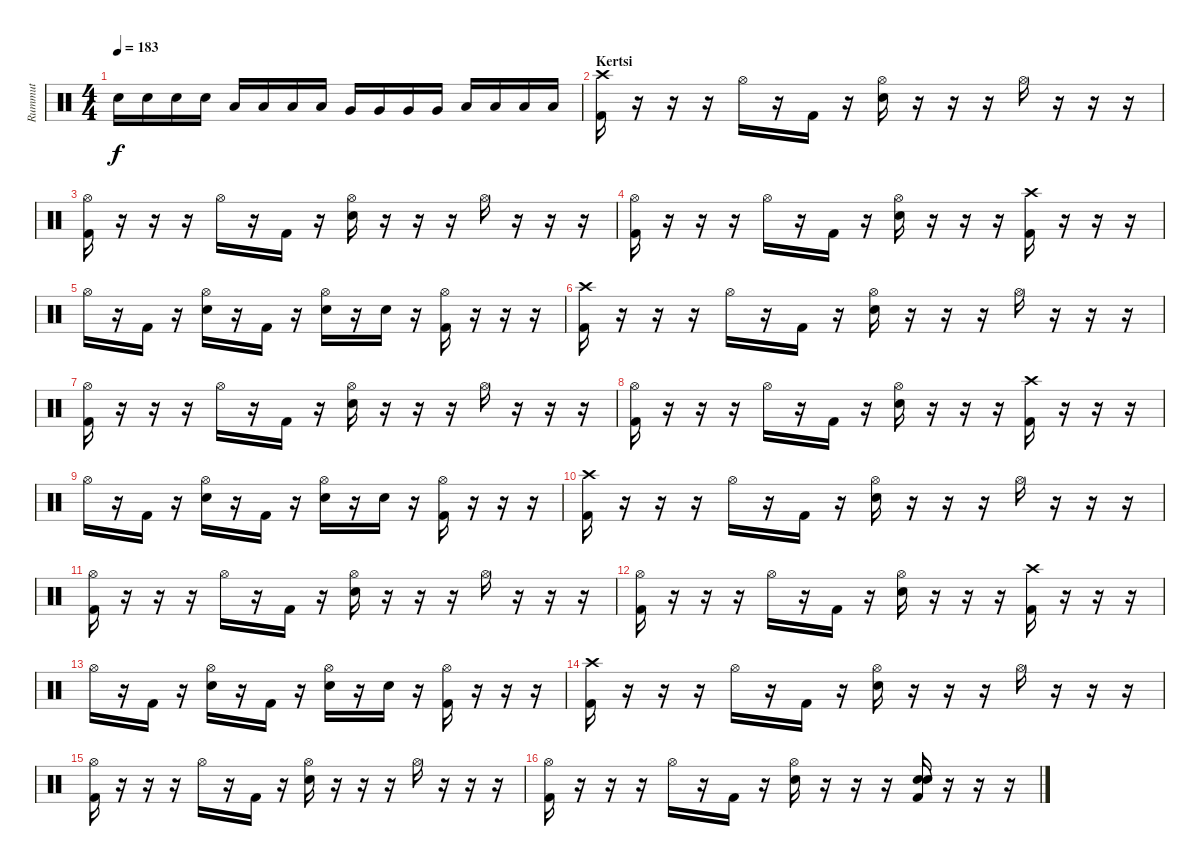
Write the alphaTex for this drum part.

\track ("Rummut" "Rummut") {instrument percussion}
\staff {score}
\articulation defaults
\ts (4 4)
\tempo 183
\clef neutral
\ks c "Electric Snare (hit)".16{dy f} "Electric Snare (hit)".16 "Electric Snare (hit)".16 "Electric Snare (hit)".16 "Low Tom (hit)".16 "Low Tom (hit)".16 "Low Tom (hit)".16 "Low Tom (hit)".16 "Very Low Tom (hit)".16 "Very Low Tom (hit)".16 "Very Low Tom (hit)".16 "Very Low Tom (hit)".16 "Low Floor Tom (hit)".16 "Low Floor Tom (hit)".16 "Low Floor Tom (hit)".16 "Low Floor Tom (hit)".16
|
\section ("" "Kertsi")
("Crash high (hit)" "Kick (hit) 2").16 r.16 r.16 r.16 "Hi-Hat (open)".16 r.16 "Kick (hit) 2".16 r.16 ("Hi-Hat (open)" "Electric Snare (hit)").16 r.16 r.16 r.16 "Hi-Hat (open)".16 r.16 r.16 r.16 |
("Hi-Hat (open)" "Kick (hit) 2").16 r.16 r.16 r.16 "Hi-Hat (open)".16 r.16 "Kick (hit) 2".16 r.16 ("Hi-Hat (open)" "Electric Snare (hit)").16 r.16 r.16 r.16 "Hi-Hat (open)".16 r.16 r.16 r.16 |
("Hi-Hat (open)" "Kick (hit) 2").16 r.16 r.16 r.16 "Hi-Hat (open)".16 r.16 "Kick (hit) 2".16 r.16 ("Hi-Hat (open)" "Electric Snare (hit)").16 r.16 r.16 r.16 ("Crash high (hit)" "Kick (hit) 2").16 r.16 r.16 r.16 |
"Hi-Hat (open)".16 r.16 "Kick (hit) 2".16 r.16 ("Hi-Hat (open)" "Electric Snare (hit)").16 r.16 "Kick (hit) 2".16 r.16 ("Hi-Hat (open)" "Electric Snare (hit)").16 r.16 "Electric Snare (hit)".16 r.16 ("Hi-Hat (open)" "Kick (hit) 2").16 r.16 r.16 r.16 |
("Crash high (hit)" "Kick (hit) 2").16 r.16 r.16 r.16 "Hi-Hat (open)".16 r.16 "Kick (hit) 2".16 r.16 ("Hi-Hat (open)" "Electric Snare (hit)").16 r.16 r.16 r.16 "Hi-Hat (open)".16 r.16 r.16 r.16 |
("Hi-Hat (open)" "Kick (hit) 2").16 r.16 r.16 r.16 "Hi-Hat (open)".16 r.16 "Kick (hit) 2".16 r.16 ("Hi-Hat (open)" "Electric Snare (hit)").16 r.16 r.16 r.16 "Hi-Hat (open)".16 r.16 r.16 r.16 |
("Hi-Hat (open)" "Kick (hit) 2").16 r.16 r.16 r.16 "Hi-Hat (open)".16 r.16 "Kick (hit) 2".16 r.16 ("Hi-Hat (open)" "Electric Snare (hit)").16 r.16 r.16 r.16 ("Crash high (hit)" "Kick (hit) 2").16 r.16 r.16 r.16 |
"Hi-Hat (open)".16 r.16 "Kick (hit) 2".16 r.16 ("Hi-Hat (open)" "Electric Snare (hit)").16 r.16 "Kick (hit) 2".16 r.16 ("Hi-Hat (open)" "Electric Snare (hit)").16 r.16 "Electric Snare (hit)".16 r.16 ("Hi-Hat (open)" "Kick (hit) 2").16 r.16 r.16 r.16 |
("Crash high (hit)" "Kick (hit) 2").16 r.16 r.16 r.16 "Hi-Hat (open)".16 r.16 "Kick (hit) 2".16 r.16 ("Hi-Hat (open)" "Electric Snare (hit)").16 r.16 r.16 r.16 "Hi-Hat (open)".16 r.16 r.16 r.16 |
("Hi-Hat (open)" "Kick (hit) 2").16 r.16 r.16 r.16 "Hi-Hat (open)".16 r.16 "Kick (hit) 2".16 r.16 ("Hi-Hat (open)" "Electric Snare (hit)").16 r.16 r.16 r.16 "Hi-Hat (open)".16 r.16 r.16 r.16 |
("Hi-Hat (open)" "Kick (hit) 2").16 r.16 r.16 r.16 "Hi-Hat (open)".16 r.16 "Kick (hit) 2".16 r.16 ("Hi-Hat (open)" "Electric Snare (hit)").16 r.16 r.16 r.16 ("Crash high (hit)" "Kick (hit) 2").16 r.16 r.16 r.16 |
"Hi-Hat (open)".16 r.16 "Kick (hit) 2".16 r.16 ("Hi-Hat (open)" "Electric Snare (hit)").16 r.16 "Kick (hit) 2".16 r.16 ("Hi-Hat (open)" "Electric Snare (hit)").16 r.16 "Electric Snare (hit)".16 r.16 ("Hi-Hat (open)" "Kick (hit) 2").16 r.16 r.16 r.16 |
("Crash high (hit)" "Kick (hit) 2").16 r.16 r.16 r.16 "Hi-Hat (open)".16 r.16 "Kick (hit) 2".16 r.16 ("Hi-Hat (open)" "Electric Snare (hit)").16 r.16 r.16 r.16 "Hi-Hat (open)".16 r.16 r.16 r.16 |
("Hi-Hat (open)" "Kick (hit) 2").16 r.16 r.16 r.16 "Hi-Hat (open)".16 r.16 "Kick (hit) 2".16 r.16 ("Hi-Hat (open)" "Electric Snare (hit)").16 r.16 r.16 r.16 "Hi-Hat (open)".16 r.16 r.16 r.16 |
("Hi-Hat (open)" "Kick (hit) 2").16 r.16 r.16 r.16 "Hi-Hat (open)".16 r.16 "Kick (hit) 2".16 r.16 ("Hi-Hat (open)" "Electric Snare (hit)").16 r.16 r.16 r.16 ("Electric Snare (hit)" "Electric Snare (hit)" "Kick (hit) 2").16 r.16 r.16 r.16
